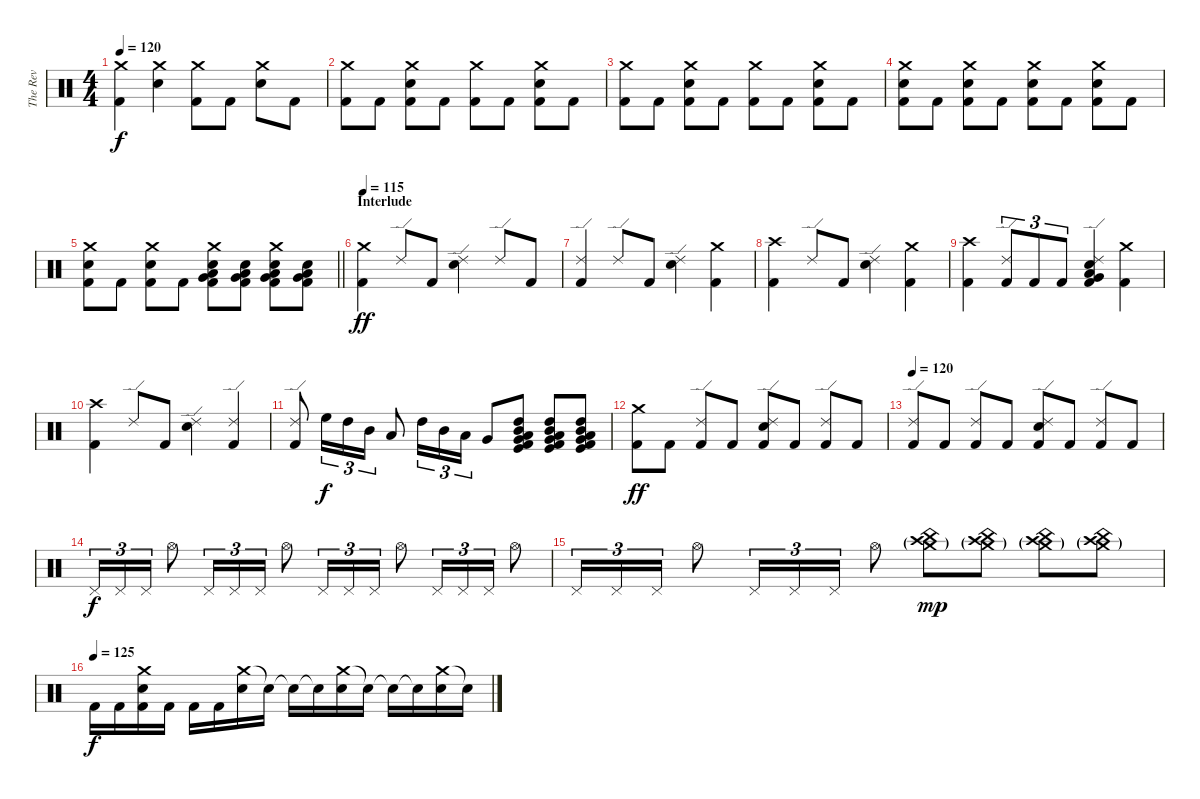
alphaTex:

\track ("The Rev" "The Rev") {instrument percussion}
\staff {score}
\articulation defaults
\ts (4 4)
\tempo 120
\clef neutral
\ks c
("Crash medium (hit)" "Kick (hit) 2").4{dy f} ("Crash medium (hit)" "Electric Snare (hit)").4 ("Crash medium (hit)" "Kick (hit) 2").8 "Kick (hit) 2".8 ("Crash medium (hit)" "Electric Snare (hit)").8 "Kick (hit) 2".8 |
("Crash medium (hit)" "Kick (hit) 2").8 "Kick (hit) 2".8 ("Crash medium (hit)" "Electric Snare (hit)" "Kick (hit) 2").8 "Kick (hit) 2".8 ("Crash medium (hit)" "Kick (hit) 2").8 "Kick (hit) 2".8 ("Crash medium (hit)" "Electric Snare (hit)" "Kick (hit) 2").8 "Kick (hit) 2".8 |
("Crash medium (hit)" "Kick (hit) 2").8 "Kick (hit) 2".8 ("Crash medium (hit)" "Electric Snare (hit)" "Kick (hit) 2").8 "Kick (hit) 2".8 ("Crash medium (hit)" "Kick (hit) 2").8 "Kick (hit) 2".8 ("Crash medium (hit)" "Electric Snare (hit)" "Kick (hit) 2").8 "Kick (hit) 2".8 |
("Crash medium (hit)" "Electric Snare (hit)" "Kick (hit) 2").8 "Kick (hit) 2".8 ("Crash medium (hit)" "Electric Snare (hit)" "Kick (hit) 2").8 "Kick (hit) 2".8 ("Crash medium (hit)" "Electric Snare (hit)" "Kick (hit) 2").8 "Kick (hit) 2".8 ("Crash medium (hit)" "Electric Snare (hit)" "Kick (hit) 2").8 "Kick (hit) 2".8 |
\barLineRight lightlight
("Crash medium (hit)" "Electric Snare (hit)" "Kick (hit) 2").8 "Kick (hit) 2".8 ("Crash medium (hit)" "Electric Snare (hit)" "Kick (hit) 2").8 "Kick (hit) 2".8 ("Crash medium (hit)" "Low Floor Tom (hit)" "Electric Snare (hit)" "Very Low Tom (hit)" "Kick (hit) 2").8 ("Low Floor Tom (hit)" "Electric Snare (hit)" "Very Low Tom (hit)" "Kick (hit) 2").8 ("Crash medium (hit)" "Low Floor Tom (hit)" "Electric Snare (hit)" "Very Low Tom (hit)" "Kick (hit) 2").8 ("Low Floor Tom (hit)" "Electric Snare (hit)" "Very Low Tom (hit)" "Kick (hit) 2").8 |
\section ("" "Interlude")
\tempo 115
("Crash medium (hit)" "Kick (hit) 2").4{dy ff} "Ride (edge) 2".8 "Kick (hit) 2".8 ("Ride (edge) 2" "Electric Snare (hit)").4 "Ride (edge) 2".8 "Kick (hit) 2".8 |
("Ride (edge) 2" "Kick (hit) 2").4 "Ride (edge) 2".8 "Kick (hit) 2".8 ("Ride (edge) 2" "Electric Snare (hit)").4 ("Crash medium (hit)" "Kick (hit) 2").4 |
("Crash high (hit)" "Kick (hit) 2").4 "Ride (edge) 2".8 "Kick (hit) 2".8 ("Ride (edge) 2" "Electric Snare (hit)").4 ("Crash medium (hit)" "Kick (hit) 2").4 |
("Crash high (hit)" "Kick (hit) 2").4 ("Ride (edge) 2" "Kick (hit) 2").8{tu (3 2)} "Kick (hit) 2".8{tu (3 2)} "Kick (hit) 2".8{tu (3 2)} ("Ride (edge) 2" "Very Low Tom (hit)" "Electric Snare (hit)" "Low Floor Tom (hit)" "Kick (hit) 2").4 ("Crash medium (hit)" "Kick (hit) 2").4 |
("Crash high (hit)" "Kick (hit) 2").4 "Ride (edge) 2".8 "Kick (hit) 2".8 ("Ride (edge) 2" "Electric Snare (hit)").4 ("Ride (edge) 2" "Kick (hit) 2").4 |
("Ride (edge) 2" "Kick (hit) 2").8 "High Floor Tom (hit)".16{tu (3 2) dy f} "High Tom (hit)".16{tu (3 2)} "Mid Tom (hit)".16{tu (3 2)} "Low Tom (hit)".8 "High Tom (hit)".16{tu (3 2)} "Mid Tom (hit)".16{tu (3 2)} "Low Tom (hit)".16{tu (3 2)} "Very Low Tom (hit)".8 ("High Tom (hit)" "Mid Tom (hit)" "Low Tom (hit)" "Very Low Tom (hit)" "Kick (hit)" "Kick (hit) 2").8 ("High Tom (hit)" "Mid Tom (hit)" "Low Tom (hit)" "Very Low Tom (hit)" "Kick (hit)" "Kick (hit) 2").8 ("High Tom (hit)" "Mid Tom (hit)" "Low Tom (hit)" "Very Low Tom (hit)" "Kick (hit)" "Kick (hit) 2").8 |
("Crash medium (hit)" "Kick (hit) 2").8{dy ff} "Kick (hit) 2".8 ("Ride (edge) 2" "Kick (hit) 2").8 "Kick (hit) 2".8 ("Ride (edge) 2" "Electric Snare (hit)" "Kick (hit) 2").8 "Kick (hit) 2".8 ("Ride (edge) 2" "Kick (hit) 2").8 "Kick (hit) 2".8 |
\tempo 120
("Ride (edge) 2" "Kick (hit) 2").8 "Kick (hit) 2".8 ("Ride (edge) 2" "Kick (hit) 2").8 "Kick (hit) 2".8 ("Ride (edge) 2" "Electric Snare (hit)" "Kick (hit) 2").8 "Kick (hit) 2".8 ("Ride (edge) 2" "Kick (hit) 2").8 "Kick (hit) 2".8 |
"Pedal Hi-Hat (hit)".16{tu (3 2) dy f} "Pedal Hi-Hat (hit)".16{tu (3 2)} "Pedal Hi-Hat (hit)".16{tu (3 2)} "Hi-Hat (open)".8 "Pedal Hi-Hat (hit)".16{tu (3 2)} "Pedal Hi-Hat (hit)".16{tu (3 2)} "Pedal Hi-Hat (hit)".16{tu (3 2)} "Hi-Hat (open)".8 "Pedal Hi-Hat (hit)".16{tu (3 2)} "Pedal Hi-Hat (hit)".16{tu (3 2)} "Pedal Hi-Hat (hit)".16{tu (3 2)} "Hi-Hat (open)".8 "Pedal Hi-Hat (hit)".16{tu (3 2)} "Pedal Hi-Hat (hit)".16{tu (3 2)} "Pedal Hi-Hat (hit)".16{tu (3 2)} "Hi-Hat (open)".8 |
"Pedal Hi-Hat (hit)".16{tu (3 2)} "Pedal Hi-Hat (hit)".16{tu (3 2)} "Pedal Hi-Hat (hit)".16{tu (3 2)} "Hi-Hat (open)".8 "Pedal Hi-Hat (hit)".16{tu (3 2)} "Pedal Hi-Hat (hit)".16{tu (3 2)} "Pedal Hi-Hat (hit)".16{tu (3 2)} "Hi-Hat (open)".8 ("China (hit)" "Crash medium (hit)"{g} "Crash high (hit)"{g}).8{dy mp} ("China (hit)" "Crash medium (hit)"{g} "Crash high (hit)"{g}).8 ("China (hit)" "Crash medium (hit)"{g} "Crash high (hit)"{g}).8 ("China (hit)" "Crash medium (hit)"{g} "Crash high (hit)"{g}).8 |
\tempo (125)
"Kick (hit) 2".16{dy f} "Kick (hit) 2".16 ("Crash medium (hit)" "Electric Snare (hit)" "Kick (hit) 2").16 "Kick (hit) 2".16 "Kick (hit) 2".16 "Kick (hit) 2".16 ("Crash medium (hit)" "Electric Snare (hit)").16 "Snare (hit)"{t}.16 "Snare (hit)"{t}.16 "Snare (hit)"{t}.16 ("Crash medium (hit)" "Electric Snare (hit)").16 "Snare (hit)"{t}.16 "Snare (hit)"{t}.16 "Snare (hit)"{t}.16 ("Crash medium (hit)" "Electric Snare (hit)").16 "Snare (hit)"{t}.16
